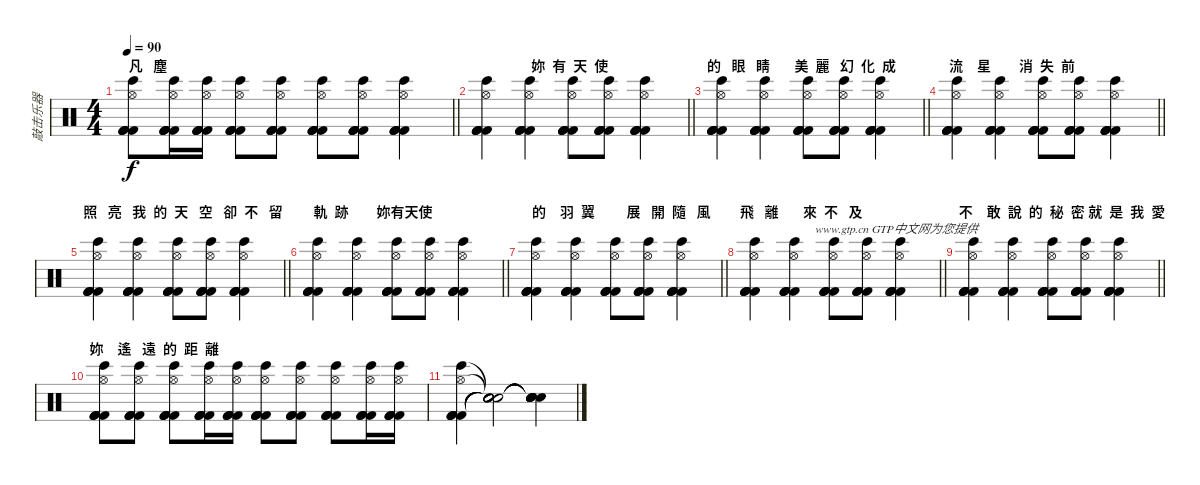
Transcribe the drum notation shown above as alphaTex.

\track ("敲击乐器" "敲击乐器") {instrument percussion}
\staff {score}
\articulation defaults
\ts (4 4)
\section ("" "   凡   塵")
\tempo 90
\clef neutral
\barLineRight lightlight
\ks c
("Kick (hit) 2" "Bongo High (hit)" "Kick (hit) 2" "Kick (hit) 2" "Kick (hit) 2" "Hi-Hat (open)").8{dy f} ("Kick (hit) 2" "Bongo High (hit)" "Kick (hit) 2" "Hi-Hat (open)" "Kick (hit) 2" "Kick (hit) 2").16 ("Kick (hit) 2" "Bongo High (hit)" "Kick (hit) 2" "Hi-Hat (open)" "Kick (hit) 2" "Kick (hit) 2").16 ("Kick (hit) 2" "Bongo High (hit)" "Kick (hit) 2" "Hi-Hat (open)" "Kick (hit) 2" "Kick (hit) 2").8 ("Kick (hit) 2" "Bongo High (hit)" "Kick (hit) 2" "Hi-Hat (open)" "Kick (hit) 2" "Kick (hit) 2").8 ("Kick (hit) 2" "Bongo High (hit)" "Kick (hit) 2" "Hi-Hat (open)" "Kick (hit) 2" "Kick (hit) 2").8 ("Kick (hit) 2" "Bongo High (hit)" "Kick (hit) 2" "Hi-Hat (open)" "Kick (hit) 2" "Kick (hit) 2").8 ("Kick (hit) 2" "Bongo High (hit)" "Kick (hit) 2" "Hi-Hat (open)" "Kick (hit) 2" "Kick (hit) 2").4 |
\section ("" "                 妳  有  天  使  ")
\barLineRight lightlight
("Kick (hit) 2" "Bongo High (hit)" "Kick (hit) 2" "Kick (hit) 2" "Kick (hit) 2" "Hi-Hat (open)").4 ("Kick (hit) 2" "Bongo High (hit)" "Kick (hit) 2" "Hi-Hat (open)" "Kick (hit) 2" "Kick (hit) 2").4 ("Kick (hit) 2" "Bongo High (hit)" "Kick (hit) 2" "Hi-Hat (open)" "Kick (hit) 2" "Kick (hit) 2").8 ("Kick (hit) 2" "Bongo High (hit)" "Kick (hit) 2" "Hi-Hat (open)" "Kick (hit) 2" "Kick (hit) 2").8 ("Kick (hit) 2" "Bongo High (hit)" "Kick (hit) 2" "Hi-Hat (open)" "Kick (hit) 2" "Kick (hit) 2").4 |
\section ("" "的   眼   睛       美  麗   幻  化  成  ")
\barLineRight lightlight
("Kick (hit) 2" "Bongo High (hit)" "Kick (hit) 2" "Hi-Hat (open)" "Kick (hit) 2" "Kick (hit) 2").4 ("Kick (hit) 2" "Bongo High (hit)" "Kick (hit) 2" "Hi-Hat (open)" "Kick (hit) 2" "Kick (hit) 2").4 ("Kick (hit) 2" "Bongo High (hit)" "Kick (hit) 2" "Hi-Hat (open)" "Kick (hit) 2" "Kick (hit) 2").8 ("Kick (hit) 2" "Bongo High (hit)" "Kick (hit) 2" "Hi-Hat (open)" "Kick (hit) 2" "Kick (hit) 2").8 ("Kick (hit) 2" "Bongo High (hit)" "Kick (hit) 2" "Hi-Hat (open)" "Kick (hit) 2" "Kick (hit) 2").4 |
\section ("" "  流    星        消  失  前")
\barLineRight lightlight
("Kick (hit) 2" "Bongo High (hit)" "Kick (hit) 2" "Hi-Hat (open)" "Kick (hit) 2" "Kick (hit) 2").4 ("Kick (hit) 2" "Bongo High (hit)" "Kick (hit) 2" "Hi-Hat (open)" "Kick (hit) 2" "Kick (hit) 2").4 ("Kick (hit) 2" "Bongo High (hit)" "Kick (hit) 2" "Hi-Hat (open)" "Kick (hit) 2" "Kick (hit) 2").8 ("Kick (hit) 2" "Bongo High (hit)" "Kick (hit) 2" "Hi-Hat (open)" "Kick (hit) 2" "Kick (hit) 2").8 ("Kick (hit) 2" "Bongo High (hit)" "Kick (hit) 2" "Hi-Hat (open)" "Kick (hit) 2" "Kick (hit) 2").4 |
\section ("" "照   亮   我  的  天   空   卻  不   留")
\barLineRight lightlight
("Kick (hit) 2" "Bongo High (hit)" "Kick (hit) 2" "Hi-Hat (open)" "Kick (hit) 2" "Kick (hit) 2").4 ("Kick (hit) 2" "Bongo High (hit)" "Kick (hit) 2" "Hi-Hat (open)" "Kick (hit) 2" "Kick (hit) 2").4 ("Kick (hit) 2" "Bongo High (hit)" "Kick (hit) 2" "Hi-Hat (open)" "Kick (hit) 2" "Kick (hit) 2").8 ("Kick (hit) 2" "Bongo High (hit)" "Kick (hit) 2" "Hi-Hat (open)" "Kick (hit) 2" "Kick (hit) 2").8 ("Kick (hit) 2" "Bongo High (hit)" "Kick (hit) 2" "Hi-Hat (open)" "Kick (hit) 2" "Kick (hit) 2").4 |
\section ("" "   軌  跡        妳有天使")
\barLineRight lightlight
("Kick (hit) 2" "Bongo High (hit)" "Kick (hit) 2" "Hi-Hat (open)" "Kick (hit) 2" "Kick (hit) 2").4 ("Kick (hit) 2" "Bongo High (hit)" "Kick (hit) 2" "Hi-Hat (open)" "Kick (hit) 2" "Kick (hit) 2").4 ("Kick (hit) 2" "Bongo High (hit)" "Kick (hit) 2" "Hi-Hat (open)" "Kick (hit) 2" "Kick (hit) 2").8 ("Kick (hit) 2" "Bongo High (hit)" "Kick (hit) 2" "Hi-Hat (open)" "Kick (hit) 2" "Kick (hit) 2").8 ("Kick (hit) 2" "Bongo High (hit)" "Kick (hit) 2" "Hi-Hat (open)" "Kick (hit) 2" "Kick (hit) 2").4 |
\section ("" "   的    羽  翼         展   開  隨   風")
\barLineRight lightlight
("Kick (hit) 2" "Bongo High (hit)" "Kick (hit) 2" "Hi-Hat (open)" "Kick (hit) 2" "Kick (hit) 2").4 ("Kick (hit) 2" "Bongo High (hit)" "Kick (hit) 2" "Hi-Hat (open)" "Kick (hit) 2" "Kick (hit) 2").4 ("Kick (hit) 2" "Bongo High (hit)" "Kick (hit) 2" "Hi-Hat (open)" "Kick (hit) 2" "Kick (hit) 2").8 ("Kick (hit) 2" "Bongo High (hit)" "Kick (hit) 2" "Hi-Hat (open)" "Kick (hit) 2" "Kick (hit) 2").8 ("Kick (hit) 2" "Bongo High (hit)" "Kick (hit) 2" "Hi-Hat (open)" "Kick (hit) 2" "Kick (hit) 2").4 |
\section ("" "飛   離       來  不   及 ")
\barLineRight lightlight
("Kick (hit) 2" "Bongo High (hit)" "Kick (hit) 2" "Hi-Hat (open)" "Kick (hit) 2" "Kick (hit) 2").4{txt "                    www.gtp.cn GTP中文网为您提供"} ("Kick (hit) 2" "Bongo High (hit)" "Kick (hit) 2" "Hi-Hat (open)" "Kick (hit) 2" "Kick (hit) 2").4 ("Kick (hit) 2" "Bongo High (hit)" "Kick (hit) 2" "Hi-Hat (open)" "Kick (hit) 2" "Kick (hit) 2").8 ("Kick (hit) 2" "Bongo High (hit)" "Kick (hit) 2" "Hi-Hat (open)" "Kick (hit) 2" "Kick (hit) 2").8 ("Kick (hit) 2" "Bongo High (hit)" "Kick (hit) 2" "Hi-Hat (open)" "Kick (hit) 2" "Kick (hit) 2").4 |
\section ("" "不    敢  說  的  秘  密 就  是  我  愛")
\barLineRight lightlight
("Kick (hit) 2" "Bongo High (hit)" "Kick (hit) 2" "Hi-Hat (open)" "Kick (hit) 2" "Kick (hit) 2").4 ("Kick (hit) 2" "Bongo High (hit)" "Kick (hit) 2" "Hi-Hat (open)" "Kick (hit) 2" "Kick (hit) 2").4 ("Kick (hit) 2" "Bongo High (hit)" "Kick (hit) 2" "Hi-Hat (open)" "Kick (hit) 2" "Kick (hit) 2").8 ("Kick (hit) 2" "Bongo High (hit)" "Kick (hit) 2" "Hi-Hat (open)" "Kick (hit) 2" "Kick (hit) 2").8 ("Kick (hit) 2" "Bongo High (hit)" "Kick (hit) 2" "Hi-Hat (open)" "Kick (hit) 2" "Kick (hit) 2").4 |
\section ("" "妳    遙   遠  的  距  離 ")
("Kick (hit) 2" "Bongo High (hit)" "Kick (hit) 2" "Kick (hit) 2" "Kick (hit) 2" "Hi-Hat (open)").8 ("Kick (hit) 2" "Bongo High (hit)" "Kick (hit) 2" "Hi-Hat (open)" "Kick (hit) 2" "Kick (hit) 2").8 ("Kick (hit) 2" "Bongo High (hit)" "Kick (hit) 2" "Hi-Hat (open)" "Kick (hit) 2" "Kick (hit) 2").8 ("Kick (hit) 2" "Bongo High (hit)" "Kick (hit) 2" "Hi-Hat (open)" "Kick (hit) 2" "Kick (hit) 2").16 ("Kick (hit) 2" "Bongo High (hit)" "Kick (hit) 2" "Hi-Hat (open)" "Kick (hit) 2" "Kick (hit) 2").16 ("Kick (hit) 2" "Bongo High (hit)" "Kick (hit) 2" "Hi-Hat (open)" "Kick (hit) 2" "Kick (hit) 2").8 ("Kick (hit) 2" "Bongo High (hit)" "Kick (hit) 2" "Kick (hit) 2" "Kick (hit) 2" "Hi-Hat (open)").8 ("Kick (hit) 2" "Bongo High (hit)" "Kick (hit) 2" "Hi-Hat (open)" "Kick (hit) 2" "Kick (hit) 2").8 ("Kick (hit) 2" "Bongo High (hit)" "Kick (hit) 2" "Hi-Hat (open)" "Kick (hit) 2" "Kick (hit) 2").16 ("Kick (hit) 2" "Bongo High (hit)" "Kick (hit) 2" "Hi-Hat (open)" "Kick (hit) 2" "Kick (hit) 2").16 |
("Kick (hit) 2" "Bongo High (hit)" "Kick (hit) 2" "Kick (hit) 2" "Kick (hit) 2" "Hi-Hat (open)").4 ("Snare (hit)"{t} "Snare (hit)"{t} "Snare (hit)"{t} "Snare (hit)"{t} "Snare (hit)"{t} "Snare (hit)"{t}).2 ("Snare (hit)"{t} "Snare (hit)"{t} "Snare (hit)"{t} "Snare (hit)"{t} "Snare (hit)"{t} "Snare (hit)"{t}).4
